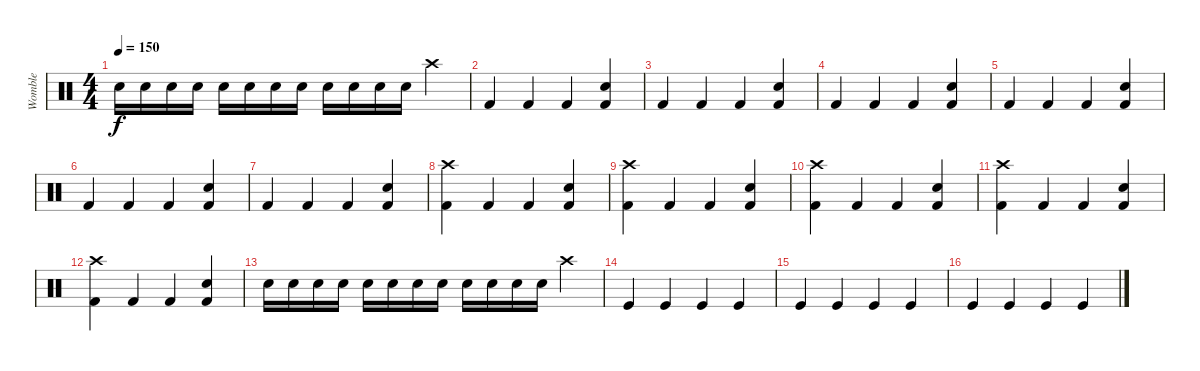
\track ("Womble" "Womble") {instrument percussion}
\staff {score}
\articulation defaults
\ts (4 4)
\tempo 150
\clef neutral
\ks c "Snare (hit) 2".16{dy f} "Snare (hit) 2".16 "Snare (hit) 2".16 "Snare (hit) 2".16 "Snare (hit) 2".16 "Snare (hit) 2".16 "Snare (hit) 2".16 "Snare (hit) 2".16 "Snare (hit) 2".16 "Snare (hit) 2".16 "Snare (hit) 2".16 "Snare (hit) 2".16 "Crash high (hit)".4
|
"Kick (hit) 2".4 "Kick (hit) 2".4 "Kick (hit) 2".4 ("Snare (hit) 2" "Kick (hit) 2").4 |
"Kick (hit) 2".4 "Kick (hit) 2".4 "Kick (hit) 2".4 ("Snare (hit) 2" "Kick (hit) 2").4 |
"Kick (hit) 2".4 "Kick (hit) 2".4 "Kick (hit) 2".4 ("Snare (hit) 2" "Kick (hit) 2").4 |
"Kick (hit) 2".4 "Kick (hit) 2".4 "Kick (hit) 2".4 ("Snare (hit) 2" "Kick (hit) 2").4 |
"Kick (hit) 2".4 "Kick (hit) 2".4 "Kick (hit) 2".4 ("Snare (hit) 2" "Kick (hit) 2").4 |
"Kick (hit) 2".4 "Kick (hit) 2".4 "Kick (hit) 2".4 ("Snare (hit) 2" "Kick (hit) 2").4 |
("Crash high (hit)" "Kick (hit) 2").4 "Kick (hit) 2".4 "Kick (hit) 2".4 ("Snare (hit) 2" "Kick (hit) 2").4 |
("Crash high (hit)" "Kick (hit) 2").4 "Kick (hit) 2".4 "Kick (hit) 2".4 ("Snare (hit) 2" "Kick (hit) 2").4 |
("Crash high (hit)" "Kick (hit) 2").4 "Kick (hit) 2".4 "Kick (hit) 2".4 ("Snare (hit) 2" "Kick (hit) 2").4 |
("Crash high (hit)" "Kick (hit) 2").4 "Kick (hit) 2".4 "Kick (hit) 2".4 ("Snare (hit) 2" "Kick (hit) 2").4 |
("Crash high (hit)" "Kick (hit) 2").4 "Kick (hit) 2".4 "Kick (hit) 2".4 ("Snare (hit) 2" "Kick (hit) 2").4 |
"Snare (hit) 2".16 "Snare (hit) 2".16 "Snare (hit) 2".16 "Snare (hit) 2".16 "Snare (hit) 2".16 "Snare (hit) 2".16 "Snare (hit) 2".16 "Snare (hit) 2".16 "Snare (hit) 2".16 "Snare (hit) 2".16 "Snare (hit) 2".16 "Snare (hit) 2".16 "Crash high (hit)".4 |
"Kick (hit)".4 "Kick (hit)".4 "Kick (hit)".4 "Kick (hit)".4 |
"Kick (hit)".4 "Kick (hit)".4 "Kick (hit)".4 "Kick (hit)".4 |
"Kick (hit)".4 "Kick (hit)".4 "Kick (hit)".4 "Kick (hit)".4
